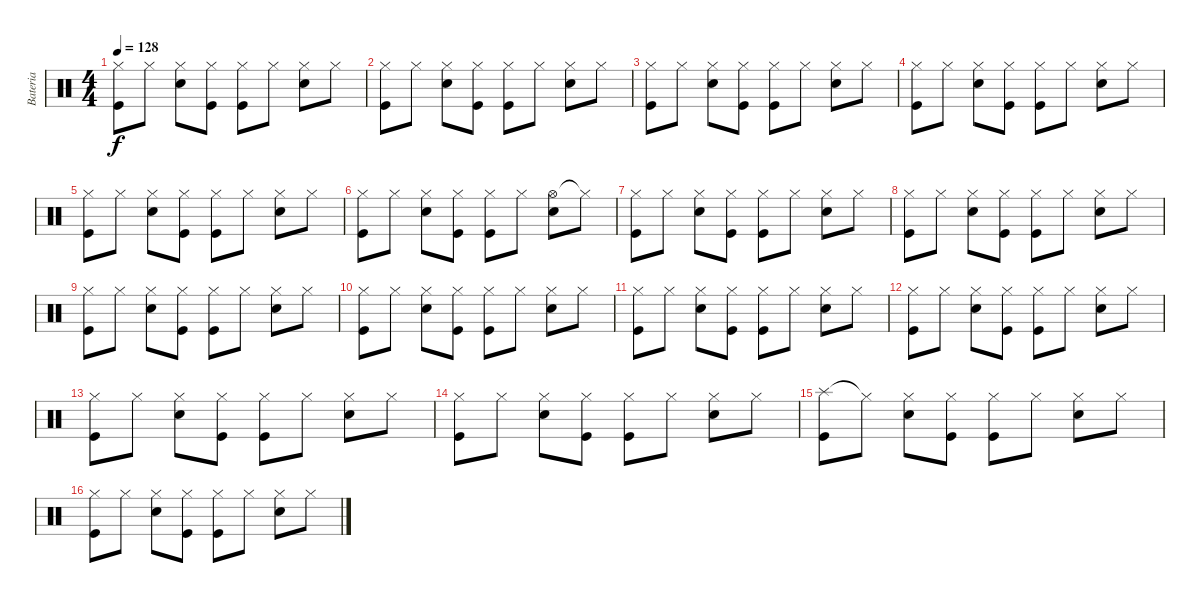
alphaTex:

\track ("Bateria" "Bateria") {instrument percussion}
\staff {score}
\articulation defaults
\ts (4 4)
\tempo 128
\clef neutral
\ks c
("Hi-Hat (closed)" "Kick (hit)").8{dy f} "Hi-Hat (closed)".8 ("Hi-Hat (closed)" "Snare (hit) 2").8 ("Hi-Hat (closed)" "Kick (hit)").8 ("Hi-Hat (closed)" "Kick (hit)").8 "Hi-Hat (closed)".8 ("Hi-Hat (closed)" "Snare (hit) 2").8 "Hi-Hat (closed)".8 |
("Hi-Hat (closed)" "Kick (hit)").8 "Hi-Hat (closed)".8 ("Hi-Hat (closed)" "Snare (hit) 2").8 ("Hi-Hat (closed)" "Kick (hit)").8 ("Hi-Hat (closed)" "Kick (hit)").8 "Hi-Hat (closed)".8 ("Hi-Hat (closed)" "Snare (hit) 2").8 "Hi-Hat (closed)".8 |
("Hi-Hat (closed)" "Kick (hit)").8 "Hi-Hat (closed)".8 ("Hi-Hat (closed)" "Snare (hit) 2").8 ("Hi-Hat (closed)" "Kick (hit)").8 ("Hi-Hat (closed)" "Kick (hit)").8 "Hi-Hat (closed)".8 ("Hi-Hat (closed)" "Snare (hit) 2").8 "Hi-Hat (closed)".8 |
("Hi-Hat (closed)" "Kick (hit)").8 "Hi-Hat (closed)".8 ("Hi-Hat (closed)" "Snare (hit) 2").8 ("Hi-Hat (closed)" "Kick (hit)").8 ("Hi-Hat (closed)" "Kick (hit)").8 "Hi-Hat (closed)".8 ("Hi-Hat (closed)" "Snare (hit) 2").8 "Hi-Hat (closed)".8 |
("Hi-Hat (closed)" "Kick (hit)").8 "Hi-Hat (closed)".8 ("Hi-Hat (closed)" "Snare (hit) 2").8 ("Hi-Hat (closed)" "Kick (hit)").8 ("Hi-Hat (closed)" "Kick (hit)").8 "Hi-Hat (closed)".8 ("Hi-Hat (closed)" "Snare (hit) 2").8 "Hi-Hat (closed)".8 |
("Hi-Hat (closed)" "Kick (hit)").8 "Hi-Hat (closed)".8 ("Hi-Hat (closed)" "Snare (hit) 2").8 ("Hi-Hat (closed)" "Kick (hit)").8 ("Hi-Hat (closed)" "Kick (hit)").8 "Hi-Hat (closed)".8 ("Hi-Hat (open)" "Snare (hit) 2").8 "Hi-Hat (closed)"{t}.8 |
("Hi-Hat (closed)" "Kick (hit)").8 "Hi-Hat (closed)".8 ("Hi-Hat (closed)" "Snare (hit) 2").8 ("Hi-Hat (closed)" "Kick (hit)").8 ("Hi-Hat (closed)" "Kick (hit)").8 "Hi-Hat (closed)".8 ("Hi-Hat (closed)" "Snare (hit) 2").8 "Hi-Hat (closed)".8 |
("Hi-Hat (closed)" "Kick (hit)").8 "Hi-Hat (closed)".8 ("Hi-Hat (closed)" "Snare (hit) 2").8 ("Hi-Hat (closed)" "Kick (hit)").8 ("Hi-Hat (closed)" "Kick (hit)").8 "Hi-Hat (closed)".8 ("Hi-Hat (closed)" "Snare (hit) 2").8 "Hi-Hat (closed)".8 |
("Hi-Hat (closed)" "Kick (hit)").8 "Hi-Hat (closed)".8 ("Hi-Hat (closed)" "Snare (hit) 2").8 ("Hi-Hat (closed)" "Kick (hit)").8 ("Hi-Hat (closed)" "Kick (hit)").8 "Hi-Hat (closed)".8 ("Hi-Hat (closed)" "Snare (hit) 2").8 "Hi-Hat (closed)".8 |
("Hi-Hat (closed)" "Kick (hit)").8 "Hi-Hat (closed)".8 ("Hi-Hat (closed)" "Snare (hit) 2").8 ("Hi-Hat (closed)" "Kick (hit)").8 ("Hi-Hat (closed)" "Kick (hit)").8 "Hi-Hat (closed)".8 ("Hi-Hat (closed)" "Snare (hit) 2").8 "Hi-Hat (closed)".8 |
("Hi-Hat (closed)" "Kick (hit)").8 "Hi-Hat (closed)".8 ("Hi-Hat (closed)" "Snare (hit) 2").8 ("Hi-Hat (closed)" "Kick (hit)").8 ("Hi-Hat (closed)" "Kick (hit)").8 "Hi-Hat (closed)".8 ("Hi-Hat (closed)" "Snare (hit) 2").8 "Hi-Hat (closed)".8 |
("Hi-Hat (closed)" "Kick (hit)").8 "Hi-Hat (closed)".8 ("Hi-Hat (closed)" "Snare (hit) 2").8 ("Hi-Hat (closed)" "Kick (hit)").8 ("Hi-Hat (closed)" "Kick (hit)").8 "Hi-Hat (closed)".8 ("Hi-Hat (closed)" "Snare (hit) 2").8 "Hi-Hat (closed)".8 |
("Hi-Hat (closed)" "Kick (hit)").8 "Hi-Hat (closed)".8 ("Hi-Hat (closed)" "Snare (hit) 2").8 ("Hi-Hat (closed)" "Kick (hit)").8 ("Hi-Hat (closed)" "Kick (hit)").8 "Hi-Hat (closed)".8 ("Hi-Hat (closed)" "Snare (hit) 2").8 "Hi-Hat (closed)".8 |
("Hi-Hat (closed)" "Kick (hit)").8 "Hi-Hat (closed)".8 ("Hi-Hat (closed)" "Snare (hit) 2").8 ("Hi-Hat (closed)" "Kick (hit)").8 ("Hi-Hat (closed)" "Kick (hit)").8 "Hi-Hat (closed)".8 ("Hi-Hat (closed)" "Snare (hit) 2").8 "Hi-Hat (closed)".8 |
("Splash (hit)" "Kick (hit)").8 "Hi-Hat (closed)"{t}.8 ("Hi-Hat (closed)" "Snare (hit) 2").8 ("Hi-Hat (closed)" "Kick (hit)").8 ("Hi-Hat (closed)" "Kick (hit)").8 "Hi-Hat (closed)".8 ("Hi-Hat (closed)" "Snare (hit) 2").8 "Hi-Hat (closed)".8 |
("Hi-Hat (closed)" "Kick (hit)").8 "Hi-Hat (closed)".8 ("Hi-Hat (closed)" "Snare (hit) 2").8 ("Hi-Hat (closed)" "Kick (hit)").8 ("Hi-Hat (closed)" "Kick (hit)").8 "Hi-Hat (closed)".8 ("Hi-Hat (closed)" "Snare (hit) 2").8 "Hi-Hat (closed)".8
